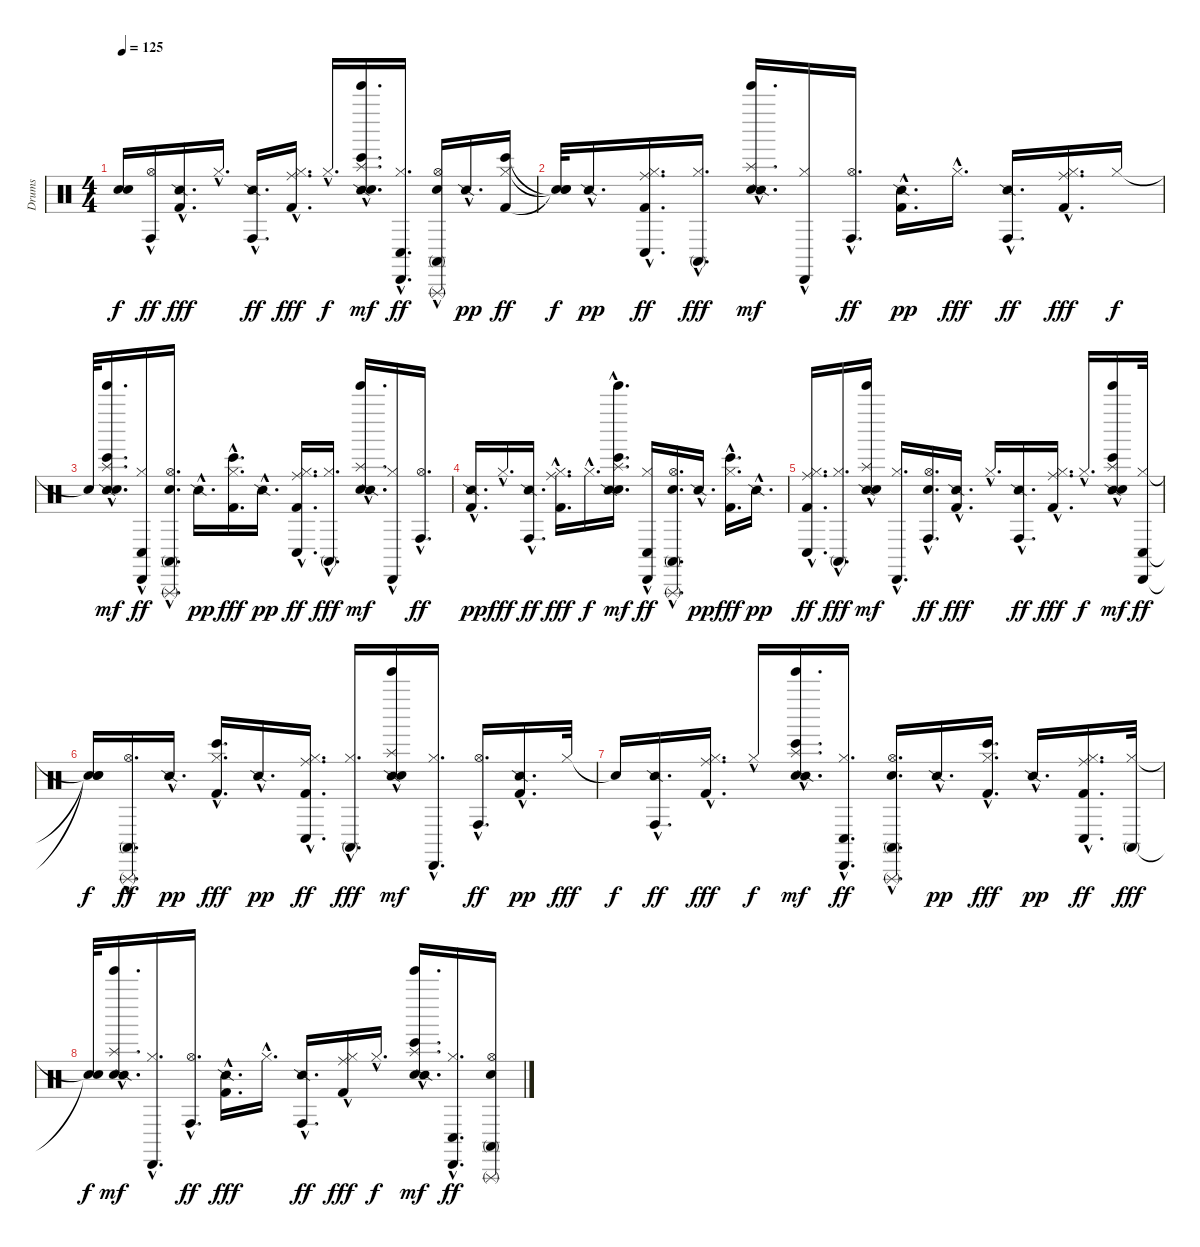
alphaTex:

\track ("Drums" "Drums") {instrument percussion}
\staff {score}
\articulation defaults
\ts (4 4)
\tempo 125
\clef neutral
\ks c
("Snare (hit)"{t} "Snare (hit)"{t}).16{dy f} ("Hi-Hat (open)"{hac} "Conga high (hit)"{hac}).16{dy ff} ("Snare (side stick) 2"{hac} "Kick (hit) 2"{hac}).16{d dy fff} "Hi-Hat (closed)"{hac}.16{d} ("Snare (side stick) 2"{hac} "Conga high (hit)"{hac}).16{d dy ff} ("Kick (hit) 2"{hac} "Ride (middle)"{hac} "Hi-Hat (closed)"{hac}).16{d dy fff} "Hi-Hat (closed)"{hac}.16{d dy f} ("Snare (side stick) 2"{hac} "Hand Clap (hit)"{hac} "Bongo High (hit)"{hac} "Tinkle Bell (hit)"{hac} "Splash (hit)"{hac}).16{d dy mf} ("Cabasa (hit)"{hac} "Hi-Hat (closed)"{hac} "Conga low (hit)"{hac}).16{d dy ff} ("Hi-Hat (open)"{hac} "Hand Clap (hit)"{hac} "Conga high (mute)"{hac} "Triangle (rnute)"{hac}).16 "Snare (side stick) 2"{hac}.16{d dy pp} ("Hi-Hat (closed)" "Kick (hit) 2" "Bongo High (hit)").16{dy ff} |
("Snare (hit)"{t} "Snare (hit)"{t} "Snare (hit)"{t}).32{dy f} "Snare (side stick) 2"{hac}.16{d dy pp} ("Kick (hit) 2"{hac} "Ride (middle)"{hac} "Hi-Hat (closed)"{hac} "Conga low (hit)"{hac}).16{d dy ff} ("Hi-Hat (closed)"{hac} "Conga high (mute)"{hac}).16{d dy fff} ("Hand Clap (hit)"{hac} "Snare (side stick) 2"{hac} "Tinkle Bell (hit)"{hac} "Splash (hit)"{hac}).16{d dy mf} ("Cabasa (hit)"{hac} "Hi-Hat (closed)"{hac}).16 ("Hi-Hat (open)"{hac} "Conga high (hit)"{hac}).16{d dy ff} ("Kick (hit) 2"{hac} "Snare (side stick) 2"{hac}).16{d dy pp} "Hi-Hat (closed)"{hac}.16{d dy fff} ("Snare (side stick) 2"{hac} "Conga high (hit)"{hac}).16{d dy ff} ("Ride (middle)"{hac} "Kick (hit) 2"{hac} "Hi-Hat (closed)"{hac}).16{d dy fff} "Hi-Hat (closed)".16{dy f} |
"Snare (hit)"{t}.32 ("Snare (side stick) 2"{hac} "Hand Clap (hit)"{hac} "Bongo High (hit)"{hac} "Tinkle Bell (hit)"{hac} "Splash (hit)"{hac}).16{d dy mf} ("Hi-Hat (closed)"{hac} "Cabasa (hit)"{hac} "Conga low (hit)"{hac}).16{dy ff} ("Hi-Hat (open)"{hac} "Hand Clap (hit)"{hac} "Conga high (mute)"{hac} "Triangle (rnute)"{hac}).16{d} "Snare (side stick) 2"{hac}.16{d dy pp} ("Bongo High (hit)"{hac} "Kick (hit) 2"{hac} "Hi-Hat (closed)"{hac}).16{d dy fff} "Snare (side stick) 2"{hac}.16{d dy pp} ("Ride (middle)"{hac} "Kick (hit) 2"{hac} "Conga low (hit)"{hac} "Hi-Hat (closed)"{hac}).16{d dy ff} ("Hi-Hat (closed)"{hac} "Conga high (mute)"{hac}).16{d dy fff} ("Hand Clap (hit)"{hac} "Snare (side stick) 2"{hac} "Tinkle Bell (hit)"{hac} "Splash (hit)"{hac}).16{d dy mf} ("Hi-Hat (closed)"{hac} "Cabasa (hit)"{hac}).16 ("Hi-Hat (open)"{hac} "Conga high (hit)"{hac}).16{d dy ff} |
("Kick (hit) 2"{hac} "Snare (side stick) 2"{hac}).16{d dy pp} "Hi-Hat (closed)"{hac}.16{d dy fff} ("Snare (side stick) 2"{hac} "Conga high (hit)"{hac}).16{d dy ff} ("Kick (hit) 2"{hac} "Ride (middle)"{hac} "Hi-Hat (closed)"{hac}).16{d dy fff} "Hi-Hat (closed)"{hac}.16{d dy f} ("Hand Clap (hit)"{hac} "Snare (side stick) 2"{hac} "Bongo High (hit)"{hac} "Tinkle Bell (hit)"{hac} "Splash (hit)"{hac}).16{d dy mf} ("Hi-Hat (closed)"{hac} "Cabasa (hit)"{hac} "Conga low (hit)"{hac}).16{dy ff} ("Hand Clap (hit)"{hac} "Hi-Hat (open)"{hac} "Conga high (mute)"{hac} "Triangle (rnute)"{hac}).16{d} "Snare (side stick) 2"{hac}.16{d dy pp} ("Kick (hit) 2"{hac} "Bongo High (hit)"{hac} "Hi-Hat (closed)"{hac}).16{d dy fff} "Snare (side stick) 2"{hac}.16{d dy pp} |
("Hi-Hat (closed)"{hac} "Kick (hit) 2"{hac} "Ride (middle)"{hac} "Conga low (hit)"{hac}).16{d dy ff} ("Hi-Hat (closed)"{hac} "Conga high (mute)"{hac}).16{d dy fff} ("Snare (side stick) 2"{hac} "Hand Clap (hit)"{hac} "Tinkle Bell (hit)"{hac} "Splash (hit)"{hac}).16{dy mf} ("Cabasa (hit)"{hac} "Hi-Hat (closed)"{hac}).16{d} ("Hand Clap (hit)"{hac} "Hi-Hat (open)"{hac} "Conga high (hit)"{hac}).16{d dy ff} ("Snare (side stick) 2"{hac} "Kick (hit) 2"{hac}).16{d dy fff} "Hi-Hat (closed)"{hac}.16{d} ("Snare (side stick) 2"{hac} "Conga high (hit)"{hac}).16{d dy ff} ("Hi-Hat (closed)"{hac} "Ride (middle)"{hac} "Kick (hit) 2"{hac}).16{d dy fff} "Hi-Hat (closed)"{hac}.16{d dy f} ("Snare (side stick) 2"{hac} "Hand Clap (hit)"{hac} "Bongo High (hit)"{hac} "Tinkle Bell (hit)"{hac} "Splash (hit)"{hac}).16{dy mf} ("Cabasa (hit)" "Hi-Hat (closed)" "Conga low (hit)").32{dy ff} |
("Snare (hit)"{t} "Snare (hit)"{t} "Snare (hit)"{t}).16{dy f} ("Hi-Hat (open)"{hac} "Conga high (mute)"{hac} "Triangle (rnute)"{hac}).16{d dy ff} "Snare (side stick) 2"{hac}.16{d dy pp} ("Kick (hit) 2"{hac} "Bongo High (hit)"{hac} "Hi-Hat (closed)"{hac}).16{d dy fff} "Snare (side stick) 2"{hac}.16{d dy pp} ("Hi-Hat (closed)"{hac} "Kick (hit) 2"{hac} "Ride (middle)"{hac} "Conga low (hit)"{hac}).16{d dy ff} ("Hi-Hat (closed)"{hac} "Conga high (mute)"{hac}).16{d dy fff} ("Snare (side stick) 2"{hac} "Hand Clap (hit)"{hac} "Tinkle Bell (hit)"{hac} "Splash (hit)"{hac}).16{dy mf} ("Hi-Hat (closed)"{hac} "Cabasa (hit)"{hac}).16{d} ("Hi-Hat (open)"{hac} "Conga high (hit)"{hac}).16{d dy ff} ("Kick (hit) 2"{hac} "Snare (side stick) 2"{hac}).16{d dy pp} "Hi-Hat (closed)".32{dy fff} |
"Snare (hit)"{t}.16{dy f} ("Snare (side stick) 2"{hac} "Conga high (hit)"{hac}).16{d dy ff} ("Ride (middle)"{hac} "Hi-Hat (closed)"{hac} "Kick (hit) 2"{hac}).16{d dy fff} "Hi-Hat (closed)"{hac}.16{dy f} ("Bongo High (hit)"{hac} "Hand Clap (hit)"{hac} "Snare (side stick) 2"{hac} "Tinkle Bell (hit)"{hac} "Splash (hit)"{hac}).16{d dy mf} ("Cabasa (hit)"{hac} "Hi-Hat (closed)"{hac} "Conga low (hit)"{hac}).16{d dy ff} ("Hi-Hat (open)"{hac} "Hand Clap (hit)"{hac} "Conga high (mute)"{hac} "Triangle (rnute)"{hac}).16{d} "Snare (side stick) 2"{hac}.16{d dy pp} ("Kick (hit) 2"{hac} "Bongo High (hit)"{hac} "Hi-Hat (closed)"{hac}).16{d dy fff} "Snare (side stick) 2"{hac}.16{d dy pp} ("Ride (middle)"{hac} "Hi-Hat (closed)"{hac} "Kick (hit) 2"{hac} "Conga low (hit)"{hac}).16{d dy ff} ("Hi-Hat (closed)" "Conga high (mute)").32{dy fff} |
("Snare (hit)"{t} "Snare (hit)"{t}).32{dy f} ("Hand Clap (hit)"{hac} "Snare (side stick) 2"{hac} "Tinkle Bell (hit)"{hac} "Splash (hit)"{hac}).16{d dy mf} ("Cabasa (hit)"{hac} "Hi-Hat (closed)"{hac}).16{d} ("Hi-Hat (open)"{hac} "Conga high (hit)"{hac}).16{d dy ff} ("Snare (side stick) 2"{hac} "Kick (hit) 2"{hac}).16{d dy fff} "Hi-Hat (closed)"{hac}.16{d} ("Snare (side stick) 2"{hac} "Conga high (hit)"{hac}).16{d dy ff} ("Ride (middle)"{hac} "Hi-Hat (closed)"{hac} "Kick (hit) 2"{hac}).16{dy fff} "Hi-Hat (closed)"{hac}.16{d dy f} ("Hand Clap (hit)"{hac} "Snare (side stick) 2"{hac} "Bongo High (hit)"{hac} "Tinkle Bell (hit)"{hac} "Splash (hit)"{hac}).16{d dy mf} ("Cabasa (hit)"{hac} "Hi-Hat (closed)"{hac} "Conga low (hit)"{hac}).16{d dy ff} ("Hi-Hat (open)" "Hand Clap (hit)" "Conga high (mute)" "Triangle (rnute)").16
